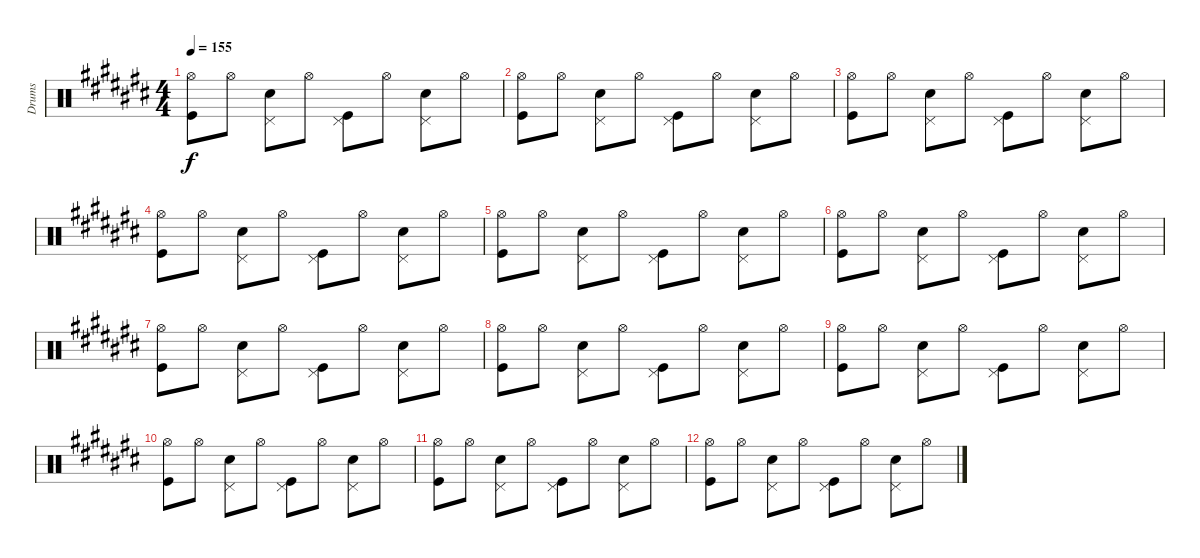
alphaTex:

\track ("Drums" "Drums") {instrument percussion}
\staff {score}
\articulation defaults
\ts (4 4)
\tempo 155
\clef neutral
\ks c#
("Hi-Hat (open)" "Kick (hit)").8{dy f} "Hi-Hat (open)".8 ("Pedal Hi-Hat (hit)" "Snare (hit) 2").8 "Hi-Hat (open)".8 ("Pedal Hi-Hat (hit)" "Kick (hit)").8 "Hi-Hat (open)".8 ("Pedal Hi-Hat (hit)" "Snare (hit) 2").8 "Hi-Hat (open)".8 |
("Hi-Hat (open)" "Kick (hit)").8 "Hi-Hat (open)".8 ("Pedal Hi-Hat (hit)" "Snare (hit) 2").8 "Hi-Hat (open)".8 ("Pedal Hi-Hat (hit)" "Kick (hit)").8 "Hi-Hat (open)".8 ("Pedal Hi-Hat (hit)" "Snare (hit) 2").8 "Hi-Hat (open)".8 |
("Hi-Hat (open)" "Kick (hit)").8 "Hi-Hat (open)".8 ("Pedal Hi-Hat (hit)" "Snare (hit) 2").8 "Hi-Hat (open)".8 ("Pedal Hi-Hat (hit)" "Kick (hit)").8 "Hi-Hat (open)".8 ("Pedal Hi-Hat (hit)" "Snare (hit) 2").8 "Hi-Hat (open)".8 |
("Hi-Hat (open)" "Kick (hit)").8 "Hi-Hat (open)".8 ("Pedal Hi-Hat (hit)" "Snare (hit) 2").8 "Hi-Hat (open)".8 ("Pedal Hi-Hat (hit)" "Kick (hit)").8 "Hi-Hat (open)".8 ("Pedal Hi-Hat (hit)" "Snare (hit) 2").8 "Hi-Hat (open)".8 |
("Hi-Hat (open)" "Kick (hit)").8 "Hi-Hat (open)".8 ("Pedal Hi-Hat (hit)" "Snare (hit) 2").8 "Hi-Hat (open)".8 ("Pedal Hi-Hat (hit)" "Kick (hit)").8 "Hi-Hat (open)".8 ("Pedal Hi-Hat (hit)" "Snare (hit) 2").8 "Hi-Hat (open)".8 |
("Hi-Hat (open)" "Kick (hit)").8 "Hi-Hat (open)".8 ("Pedal Hi-Hat (hit)" "Snare (hit) 2").8 "Hi-Hat (open)".8 ("Pedal Hi-Hat (hit)" "Kick (hit)").8 "Hi-Hat (open)".8 ("Pedal Hi-Hat (hit)" "Snare (hit) 2").8 "Hi-Hat (open)".8 |
("Hi-Hat (open)" "Kick (hit)").8 "Hi-Hat (open)".8 ("Pedal Hi-Hat (hit)" "Snare (hit) 2").8 "Hi-Hat (open)".8 ("Pedal Hi-Hat (hit)" "Kick (hit)").8 "Hi-Hat (open)".8 ("Pedal Hi-Hat (hit)" "Snare (hit) 2").8 "Hi-Hat (open)".8 |
("Hi-Hat (open)" "Kick (hit)").8 "Hi-Hat (open)".8 ("Pedal Hi-Hat (hit)" "Snare (hit) 2").8 "Hi-Hat (open)".8 ("Pedal Hi-Hat (hit)" "Kick (hit)").8 "Hi-Hat (open)".8 ("Pedal Hi-Hat (hit)" "Snare (hit) 2").8 "Hi-Hat (open)".8 |
("Hi-Hat (open)" "Kick (hit)").8 "Hi-Hat (open)".8 ("Pedal Hi-Hat (hit)" "Snare (hit) 2").8 "Hi-Hat (open)".8 ("Pedal Hi-Hat (hit)" "Kick (hit)").8 "Hi-Hat (open)".8 ("Pedal Hi-Hat (hit)" "Snare (hit) 2").8 "Hi-Hat (open)".8 |
("Hi-Hat (open)" "Kick (hit)").8 "Hi-Hat (open)".8 ("Pedal Hi-Hat (hit)" "Snare (hit) 2").8 "Hi-Hat (open)".8 ("Pedal Hi-Hat (hit)" "Kick (hit)").8 "Hi-Hat (open)".8 ("Pedal Hi-Hat (hit)" "Snare (hit) 2").8 "Hi-Hat (open)".8 |
("Hi-Hat (open)" "Kick (hit)").8 "Hi-Hat (open)".8 ("Pedal Hi-Hat (hit)" "Snare (hit) 2").8 "Hi-Hat (open)".8 ("Pedal Hi-Hat (hit)" "Kick (hit)").8 "Hi-Hat (open)".8 ("Pedal Hi-Hat (hit)" "Snare (hit) 2").8 "Hi-Hat (open)".8 |
("Hi-Hat (open)" "Kick (hit)").8 "Hi-Hat (open)".8 ("Pedal Hi-Hat (hit)" "Snare (hit) 2").8 "Hi-Hat (open)".8 ("Pedal Hi-Hat (hit)" "Kick (hit)").8 "Hi-Hat (open)".8 ("Pedal Hi-Hat (hit)" "Snare (hit) 2").8 "Hi-Hat (open)".8
